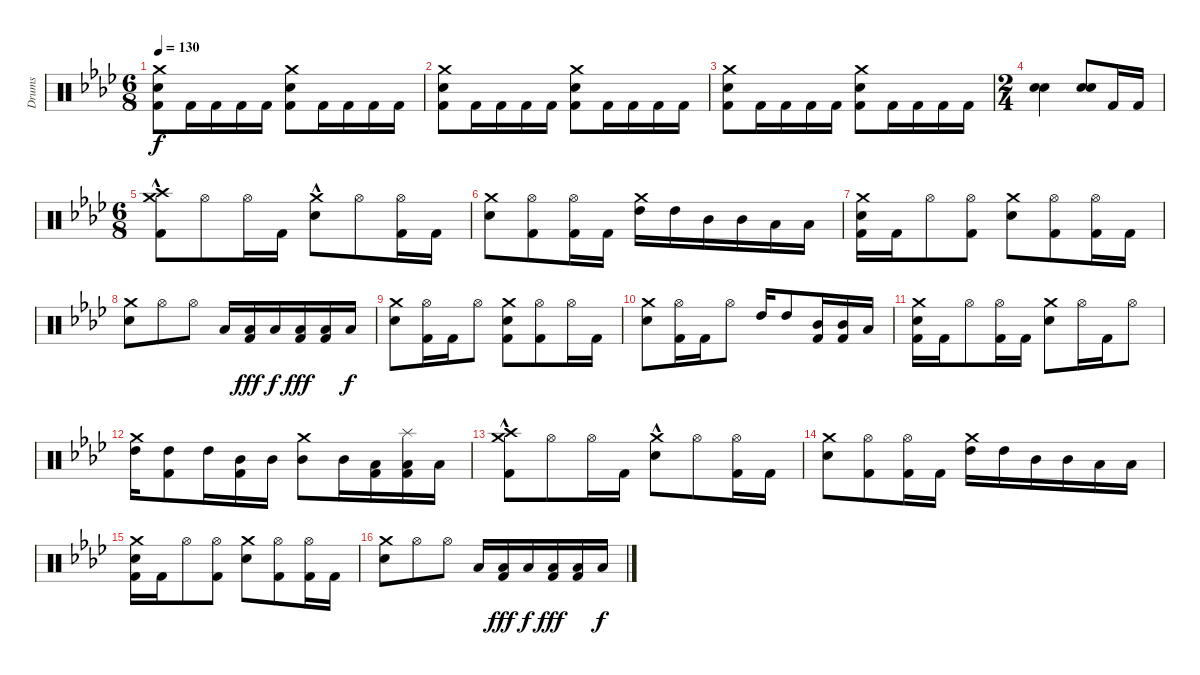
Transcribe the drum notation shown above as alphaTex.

\track ("Drums" "Drums") {instrument percussion}
\staff {score}
\articulation defaults
\ts (6 8)
\tempo 130
\clef neutral
\ks ab
("Kick (hit) 2" "Electric Snare (hit)" "Crash medium (hit)").8{dy f} "Kick (hit) 2".16 "Kick (hit) 2".16 "Kick (hit) 2".16 "Kick (hit) 2".16 ("Kick (hit) 2" "Electric Snare (hit)" "Crash medium (hit)").8 "Kick (hit) 2".16 "Kick (hit) 2".16 "Kick (hit) 2".16 "Kick (hit) 2".16 |
("Kick (hit) 2" "Electric Snare (hit)" "Crash medium (hit)").8 "Kick (hit) 2".16 "Kick (hit) 2".16 "Kick (hit) 2".16 "Kick (hit) 2".16 ("Kick (hit) 2" "Electric Snare (hit)" "Crash medium (hit)").8 "Kick (hit) 2".16 "Kick (hit) 2".16 "Kick (hit) 2".16 "Kick (hit) 2".16 |
("Kick (hit) 2" "Electric Snare (hit)" "Crash medium (hit)").8 "Kick (hit) 2".16 "Kick (hit) 2".16 "Kick (hit) 2".16 "Kick (hit) 2".16 ("Kick (hit) 2" "Electric Snare (hit)" "Crash medium (hit)").8 "Kick (hit) 2".16 "Kick (hit) 2".16 "Kick (hit) 2".16 "Kick (hit) 2".16 |
\ts (2 4)
("Electric Snare (hit)" "Electric Snare (hit)").4 ("Electric Snare (hit)" "Electric Snare (hit)").8 "Kick (hit) 2".16 "Kick (hit) 2".16 |
\ts (6 8)
("Crash medium (hit)"{hac} "Crash high (hit)" "Kick (hit) 2").8 "Hi-Hat (open)".8 "Hi-Hat (open)".16 "Kick (hit) 2".16 ("Crash medium (hit)"{hac} "Electric Snare (hit)").8 "Hi-Hat (open)".8 ("Hi-Hat (open)" "Kick (hit) 2").16 "Kick (hit) 2".16 |
("Crash medium (hit)" "Electric Snare (hit)").8 ("Hi-Hat (open)" "Kick (hit) 2").8 ("Hi-Hat (open)" "Kick (hit) 2").16 "Kick (hit) 2".16 ("High Tom (hit)" "Crash medium (hit)").16 "High Tom (hit)".16 "Mid Tom (hit)".16 "Mid Tom (hit)".16 "Low Tom (hit)".16 "Low Tom (hit)".16 |
("Crash medium (hit)" "Electric Snare (hit)" "Kick (hit) 2").16 "Kick (hit) 2".16 "Hi-Hat (open)".8 ("Hi-Hat (open)" "Kick (hit) 2").8 ("Crash medium (hit)" "Electric Snare (hit)").8 ("Hi-Hat (open)" "Kick (hit) 2").8 ("Hi-Hat (open)" "Kick (hit) 2").16 "Kick (hit) 2".16 |
("Crash medium (hit)" "Electric Snare (hit)").8 "Hi-Hat (open)".8 "Hi-Hat (open)".8 "Low Tom (hit)".16 ("Low Tom (hit)" "Kick (hit) 2").16{dy fff} "Low Tom (hit)".16{dy f} ("Low Tom (hit)" "Kick (hit) 2").16{dy fff} ("Low Tom (hit)" "Kick (hit) 2").16 "Low Tom (hit)".16{dy f} |
("Crash medium (hit)" "Electric Snare (hit)").8 ("Hi-Hat (open)" "Kick (hit) 2").16 "Kick (hit) 2".16 "Hi-Hat (open)".8 ("Crash medium (hit)" "Electric Snare (hit)" "Kick (hit) 2").8 ("Hi-Hat (open)" "Kick (hit) 2").8 "Hi-Hat (open)".16 "Kick (hit) 2".16 |
("Crash medium (hit)" "Electric Snare (hit)").8 ("Hi-Hat (open)" "Kick (hit) 2").16 "Kick (hit) 2".16 "Hi-Hat (open)".8 "High Tom (hit)".16 "High Tom (hit)".8 ("Mid Tom (hit)" "Kick (hit) 2").16 ("Mid Tom (hit)" "Kick (hit) 2").16 "Low Tom (hit)".16 |
("Crash medium (hit)" "Electric Snare (hit)" "Kick (hit) 2").16 "Kick (hit) 2".16 "Hi-Hat (open)".8 ("Hi-Hat (open)" "Kick (hit) 2").16 "Kick (hit) 2".16 ("Crash medium (hit)" "Electric Snare (hit)").8 "Hi-Hat (open)".16 "Kick (hit) 2".16 "Hi-Hat (open)".8 |
("High Tom (hit)" "Crash medium (hit)").16 ("High Tom (hit)" "Kick (hit) 2").8 "High Tom (hit)".16 ("Mid Tom (hit)" "Kick (hit) 2").16 "Mid Tom (hit)".16 ("Mid Tom (hit)" "Crash medium (hit)").8 "Mid Tom (hit)".16 ("Low Tom (hit)" "Kick (hit) 2").16 ("Low Tom (hit)" "Splash (hit)" "Kick (hit) 2").16 "Low Tom (hit)".16 |
("Crash medium (hit)"{hac} "Crash high (hit)" "Kick (hit) 2").8 "Hi-Hat (open)".8 "Hi-Hat (open)".16 "Kick (hit) 2".16 ("Crash medium (hit)"{hac} "Electric Snare (hit)").8 "Hi-Hat (open)".8 ("Hi-Hat (open)" "Kick (hit) 2").16 "Kick (hit) 2".16 |
("Crash medium (hit)" "Electric Snare (hit)").8 ("Hi-Hat (open)" "Kick (hit) 2").8 ("Hi-Hat (open)" "Kick (hit) 2").16 "Kick (hit) 2".16 ("High Tom (hit)" "Crash medium (hit)").16 "High Tom (hit)".16 "Mid Tom (hit)".16 "Mid Tom (hit)".16 "Low Tom (hit)".16 "Low Tom (hit)".16 |
("Crash medium (hit)" "Electric Snare (hit)" "Kick (hit) 2").16 "Kick (hit) 2".16 "Hi-Hat (open)".8 ("Hi-Hat (open)" "Kick (hit) 2").8 ("Crash medium (hit)" "Electric Snare (hit)").8 ("Hi-Hat (open)" "Kick (hit) 2").8 ("Hi-Hat (open)" "Kick (hit) 2").16 "Kick (hit) 2".16 |
("Crash medium (hit)" "Electric Snare (hit)").8 "Hi-Hat (open)".8 "Hi-Hat (open)".8 "Low Tom (hit)".16 ("Low Tom (hit)" "Kick (hit) 2").16{dy fff} "Low Tom (hit)".16{dy f} ("Low Tom (hit)" "Kick (hit) 2").16{dy fff} ("Low Tom (hit)" "Kick (hit) 2").16 "Low Tom (hit)".16{dy f}
